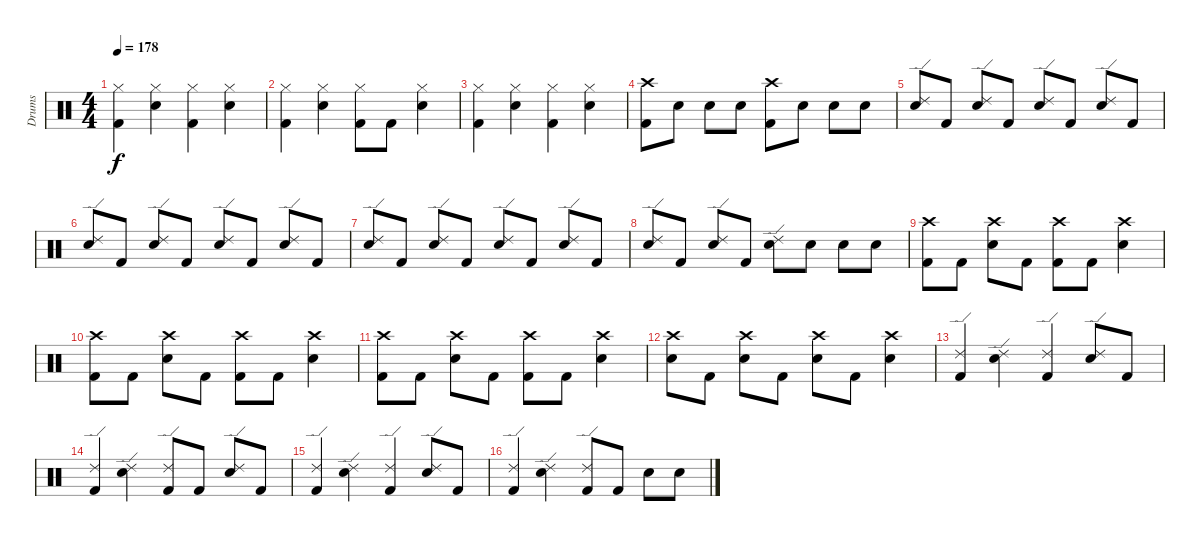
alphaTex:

\track ("Drums" "Drums") {instrument percussion}
\staff {score}
\articulation defaults
\ts (4 4)
\tempo 178
\clef neutral
\ks c
("Hi-Hat (closed)" "Kick (hit) 2").4{dy f} ("Hi-Hat (closed)" "Electric Snare (hit)").4 ("Hi-Hat (closed)" "Kick (hit) 2").4 ("Hi-Hat (closed)" "Electric Snare (hit)").4 |
("Hi-Hat (closed)" "Kick (hit) 2").4 ("Hi-Hat (closed)" "Electric Snare (hit)").4 ("Hi-Hat (closed)" "Kick (hit) 2").8 "Kick (hit) 2".8 ("Hi-Hat (closed)" "Electric Snare (hit)").4 |
("Hi-Hat (closed)" "Kick (hit) 2").4 ("Hi-Hat (closed)" "Electric Snare (hit)").4 ("Hi-Hat (closed)" "Kick (hit) 2").4 ("Hi-Hat (closed)" "Electric Snare (hit)").4 |
("Crash high (hit)" "Kick (hit) 2").8 "Electric Snare (hit)".8 "Electric Snare (hit)".8 "Electric Snare (hit)".8 ("Crash high (hit)" "Kick (hit) 2").8 "Electric Snare (hit)".8 "Electric Snare (hit)".8 "Electric Snare (hit)".8 |
("Ride (edge) 2" "Electric Snare (hit)").8 "Kick (hit) 2".8 ("Ride (edge) 2" "Electric Snare (hit)").8 "Kick (hit) 2".8 ("Ride (edge) 2" "Electric Snare (hit)").8 "Kick (hit) 2".8 ("Ride (edge) 2" "Electric Snare (hit)").8 "Kick (hit) 2".8 |
("Ride (edge) 2" "Electric Snare (hit)").8 "Kick (hit) 2".8 ("Ride (edge) 2" "Electric Snare (hit)").8 "Kick (hit) 2".8 ("Ride (edge) 2" "Electric Snare (hit)").8 "Kick (hit) 2".8 ("Ride (edge) 2" "Electric Snare (hit)").8 "Kick (hit) 2".8 |
("Ride (edge) 2" "Electric Snare (hit)").8 "Kick (hit) 2".8 ("Ride (edge) 2" "Electric Snare (hit)").8 "Kick (hit) 2".8 ("Ride (edge) 2" "Electric Snare (hit)").8 "Kick (hit) 2".8 ("Ride (edge) 2" "Electric Snare (hit)").8 "Kick (hit) 2".8 |
("Ride (edge) 2" "Electric Snare (hit)").8 "Kick (hit) 2".8 ("Ride (edge) 2" "Electric Snare (hit)").8 "Kick (hit) 2".8 ("Ride (edge) 2" "Electric Snare (hit)").8 "Electric Snare (hit)".8 "Electric Snare (hit)".8 "Electric Snare (hit)".8 |
("Crash high (hit)" "Kick (hit) 2").8 "Kick (hit) 2".8 ("Crash high (hit)" "Electric Snare (hit)").8 "Kick (hit) 2".8 ("Crash high (hit)" "Kick (hit) 2").8 "Kick (hit) 2".8 ("Crash high (hit)" "Electric Snare (hit)").4 |
("Crash high (hit)" "Kick (hit) 2").8 "Kick (hit) 2".8 ("Crash high (hit)" "Electric Snare (hit)").8 "Kick (hit) 2".8 ("Crash high (hit)" "Kick (hit) 2").8 "Kick (hit) 2".8 ("Crash high (hit)" "Electric Snare (hit)").4 |
("Crash high (hit)" "Kick (hit) 2").8 "Kick (hit) 2".8 ("Crash high (hit)" "Electric Snare (hit)").8 "Kick (hit) 2".8 ("Crash high (hit)" "Kick (hit) 2").8 "Kick (hit) 2".8 ("Crash high (hit)" "Electric Snare (hit)").4 |
("Crash high (hit)" "Electric Snare (hit)").8 "Kick (hit) 2".8 ("Crash high (hit)" "Electric Snare (hit)").8 "Kick (hit) 2".8 ("Crash high (hit)" "Electric Snare (hit)").8 "Kick (hit) 2".8 ("Crash high (hit)" "Electric Snare (hit)").4 |
("Ride (edge) 2" "Kick (hit) 2").4 ("Ride (edge) 2" "Electric Snare (hit)").4 ("Ride (edge) 2" "Kick (hit) 2").4 ("Ride (edge) 2" "Electric Snare (hit)").8 "Kick (hit) 2".8 |
("Ride (edge) 2" "Kick (hit) 2").4 ("Ride (edge) 2" "Electric Snare (hit)").4 ("Ride (edge) 2" "Kick (hit) 2").8 "Kick (hit) 2".8 ("Ride (edge) 2" "Electric Snare (hit)").8 "Kick (hit) 2".8 |
("Ride (edge) 2" "Kick (hit) 2").4 ("Ride (edge) 2" "Electric Snare (hit)").4 ("Ride (edge) 2" "Kick (hit) 2").4 ("Ride (edge) 2" "Electric Snare (hit)").8 "Kick (hit) 2".8 |
("Ride (edge) 2" "Kick (hit) 2").4 ("Ride (edge) 2" "Electric Snare (hit)").4 ("Ride (edge) 2" "Kick (hit) 2").8 "Kick (hit) 2".8 "Electric Snare (hit)".8 "Electric Snare (hit)".8
